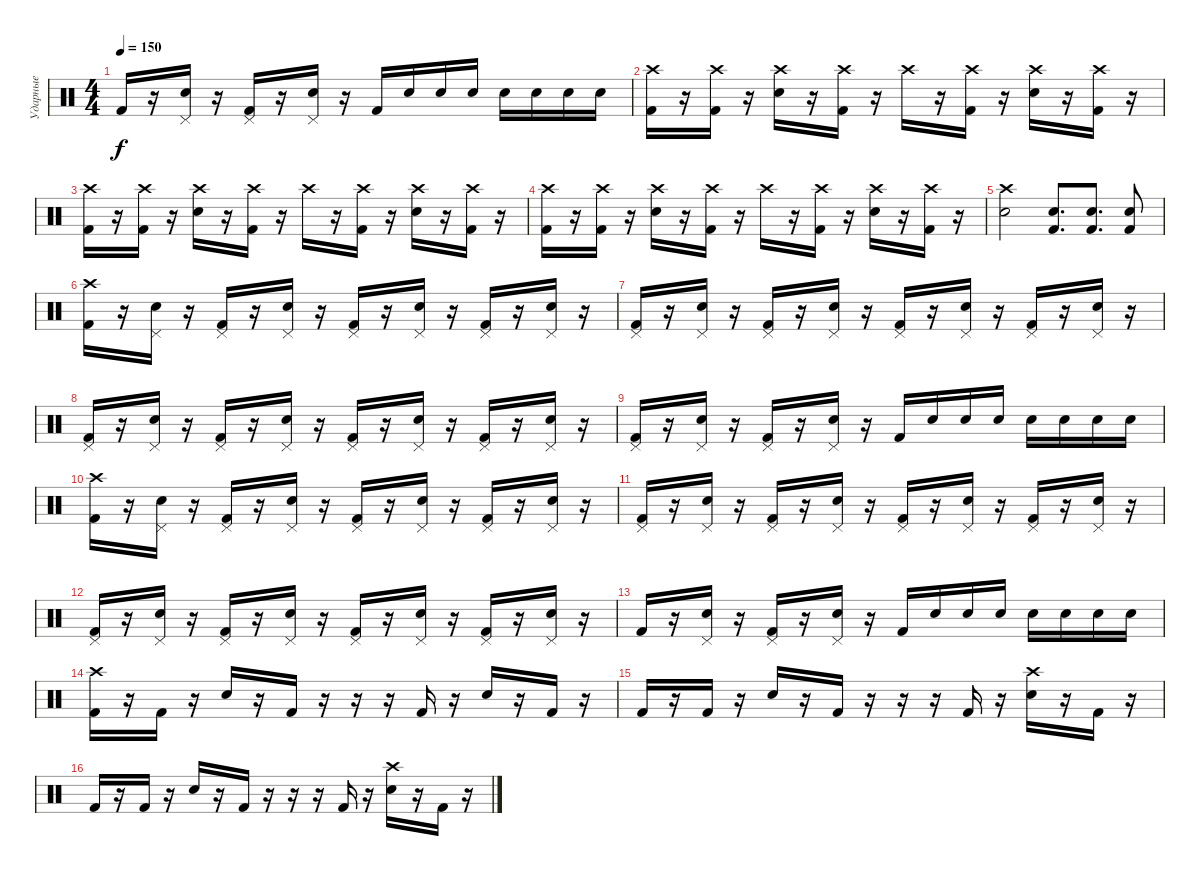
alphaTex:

\track ("Ударные" "Ударные") {instrument percussion}
\staff {score}
\articulation defaults
\ts (4 4)
\tempo 150
\clef neutral
\ks c "Kick (hit) 2".16{dy f}
r.16 ("Electric Snare (hit)" "Pedal Hi-Hat (hit)").16 r.16 ("Kick (hit) 2" "Pedal Hi-Hat (hit)").16 r.16 ("Electric Snare (hit)" "Pedal Hi-Hat (hit)").16 r.16 "Kick (hit) 2".16 "Electric Snare (hit)".16 "Electric Snare (hit)".16 "Electric Snare (hit)".16 "Electric Snare (hit)".16 "Electric Snare (hit)".16 "Electric Snare (hit)".16 "Electric Snare (hit)".16 |
("Kick (hit) 2" "Crash high (hit)").16 r.16 ("Kick (hit) 2" "Crash high (hit)").16 r.16 ("Electric Snare (hit)" "Crash high (hit)").16 r.16 ("Kick (hit) 2" "Crash high (hit)").16 r.16 "Crash high (hit)".16 r.16 ("Kick (hit) 2" "Crash high (hit)").16 r.16 ("Electric Snare (hit)" "Crash high (hit)").16 r.16 ("Kick (hit) 2" "Crash high (hit)").16 r.16 |
("Kick (hit) 2" "Crash high (hit)").16 r.16 ("Kick (hit) 2" "Crash high (hit)").16 r.16 ("Electric Snare (hit)" "Crash high (hit)").16 r.16 ("Kick (hit) 2" "Crash high (hit)").16 r.16 "Crash high (hit)".16 r.16 ("Kick (hit) 2" "Crash high (hit)").16 r.16 ("Electric Snare (hit)" "Crash high (hit)").16 r.16 ("Kick (hit) 2" "Crash high (hit)").16 r.16 |
("Kick (hit) 2" "Crash high (hit)").16 r.16 ("Kick (hit) 2" "Crash high (hit)").16 r.16 ("Electric Snare (hit)" "Crash high (hit)").16 r.16 ("Kick (hit) 2" "Crash high (hit)").16 r.16 "Crash high (hit)".16 r.16 ("Kick (hit) 2" "Crash high (hit)").16 r.16 ("Electric Snare (hit)" "Crash high (hit)").16 r.16 ("Kick (hit) 2" "Crash high (hit)").16 r.16 |
("Electric Snare (hit)" "Crash high (hit)").2 ("Electric Snare (hit)" "Kick (hit) 2").8{d} ("Electric Snare (hit)" "Kick (hit) 2").8{d} ("Electric Snare (hit)" "Kick (hit) 2").8 |
("Kick (hit) 2" "Crash high (hit)").16 r.16 ("Electric Snare (hit)" "Pedal Hi-Hat (hit)").16 r.16 ("Kick (hit) 2" "Pedal Hi-Hat (hit)").16 r.16 ("Electric Snare (hit)" "Pedal Hi-Hat (hit)").16 r.16 ("Kick (hit) 2" "Pedal Hi-Hat (hit)").16 r.16 ("Electric Snare (hit)" "Pedal Hi-Hat (hit)").16 r.16 ("Kick (hit) 2" "Pedal Hi-Hat (hit)").16 r.16 ("Electric Snare (hit)" "Pedal Hi-Hat (hit)").16 r.16 |
("Kick (hit) 2" "Pedal Hi-Hat (hit)").16 r.16 ("Electric Snare (hit)" "Pedal Hi-Hat (hit)").16 r.16 ("Kick (hit) 2" "Pedal Hi-Hat (hit)").16 r.16 ("Electric Snare (hit)" "Pedal Hi-Hat (hit)").16 r.16 ("Kick (hit) 2" "Pedal Hi-Hat (hit)").16 r.16 ("Electric Snare (hit)" "Pedal Hi-Hat (hit)").16 r.16 ("Kick (hit) 2" "Pedal Hi-Hat (hit)").16 r.16 ("Electric Snare (hit)" "Pedal Hi-Hat (hit)").16 r.16 |
("Kick (hit) 2" "Pedal Hi-Hat (hit)").16 r.16 ("Electric Snare (hit)" "Pedal Hi-Hat (hit)").16 r.16 ("Kick (hit) 2" "Pedal Hi-Hat (hit)").16 r.16 ("Electric Snare (hit)" "Pedal Hi-Hat (hit)").16 r.16 ("Kick (hit) 2" "Pedal Hi-Hat (hit)").16 r.16 ("Electric Snare (hit)" "Pedal Hi-Hat (hit)").16 r.16 ("Kick (hit) 2" "Pedal Hi-Hat (hit)").16 r.16 ("Electric Snare (hit)" "Pedal Hi-Hat (hit)").16 r.16 |
("Kick (hit) 2" "Pedal Hi-Hat (hit)").16 r.16 ("Electric Snare (hit)" "Pedal Hi-Hat (hit)").16 r.16 ("Kick (hit) 2" "Pedal Hi-Hat (hit)").16 r.16 ("Electric Snare (hit)" "Pedal Hi-Hat (hit)").16 r.16 "Kick (hit) 2".16 "Electric Snare (hit)".16 "Electric Snare (hit)".16 "Electric Snare (hit)".16 "Electric Snare (hit)".16 "Electric Snare (hit)".16 "Electric Snare (hit)".16 "Electric Snare (hit)".16 |
("Kick (hit) 2" "Crash high (hit)").16 r.16 ("Electric Snare (hit)" "Pedal Hi-Hat (hit)").16 r.16 ("Kick (hit) 2" "Pedal Hi-Hat (hit)").16 r.16 ("Electric Snare (hit)" "Pedal Hi-Hat (hit)").16 r.16 ("Kick (hit) 2" "Pedal Hi-Hat (hit)").16 r.16 ("Electric Snare (hit)" "Pedal Hi-Hat (hit)").16 r.16 ("Kick (hit) 2" "Pedal Hi-Hat (hit)").16 r.16 ("Electric Snare (hit)" "Pedal Hi-Hat (hit)").16 r.16 |
("Kick (hit) 2" "Pedal Hi-Hat (hit)").16 r.16 ("Electric Snare (hit)" "Pedal Hi-Hat (hit)").16 r.16 ("Kick (hit) 2" "Pedal Hi-Hat (hit)").16 r.16 ("Electric Snare (hit)" "Pedal Hi-Hat (hit)").16 r.16 ("Kick (hit) 2" "Pedal Hi-Hat (hit)").16 r.16 ("Electric Snare (hit)" "Pedal Hi-Hat (hit)").16 r.16 ("Kick (hit) 2" "Pedal Hi-Hat (hit)").16 r.16 ("Electric Snare (hit)" "Pedal Hi-Hat (hit)").16 r.16 |
("Kick (hit) 2" "Pedal Hi-Hat (hit)").16 r.16 ("Electric Snare (hit)" "Pedal Hi-Hat (hit)").16 r.16 ("Kick (hit) 2" "Pedal Hi-Hat (hit)").16 r.16 ("Electric Snare (hit)" "Pedal Hi-Hat (hit)").16 r.16 ("Kick (hit) 2" "Pedal Hi-Hat (hit)").16 r.16 ("Electric Snare (hit)" "Pedal Hi-Hat (hit)").16 r.16 ("Kick (hit) 2" "Pedal Hi-Hat (hit)").16 r.16 ("Electric Snare (hit)" "Pedal Hi-Hat (hit)").16 r.16 |
"Kick (hit) 2".16 r.16 ("Electric Snare (hit)" "Pedal Hi-Hat (hit)").16 r.16 ("Kick (hit) 2" "Pedal Hi-Hat (hit)").16 r.16 ("Electric Snare (hit)" "Pedal Hi-Hat (hit)").16 r.16 "Kick (hit) 2".16 "Electric Snare (hit)".16 "Electric Snare (hit)".16 "Electric Snare (hit)".16 "Electric Snare (hit)".16 "Electric Snare (hit)".16 "Electric Snare (hit)".16 "Electric Snare (hit)".16 |
("Kick (hit) 2" "Crash high (hit)").16 r.16 "Kick (hit) 2".16 r.16 "Electric Snare (hit)".16 r.16 "Kick (hit) 2".16 r.16 r.16 r.16 "Kick (hit) 2".16 r.16 "Electric Snare (hit)".16 r.16 "Kick (hit) 2".16 r.16 |
"Kick (hit) 2".16 r.16 "Kick (hit) 2".16 r.16 "Electric Snare (hit)".16 r.16 "Kick (hit) 2".16 r.16 r.16 r.16 "Kick (hit) 2".16 r.16 ("Electric Snare (hit)" "Crash high (hit)").16 r.16 "Kick (hit) 2".16 r.16 |
"Kick (hit) 2".16 r.16 "Kick (hit) 2".16 r.16 "Electric Snare (hit)".16 r.16 "Kick (hit) 2".16 r.16 r.16 r.16 "Kick (hit) 2".16 r.16 ("Electric Snare (hit)" "Crash high (hit)").16 r.16 "Kick (hit) 2".16 r.16
